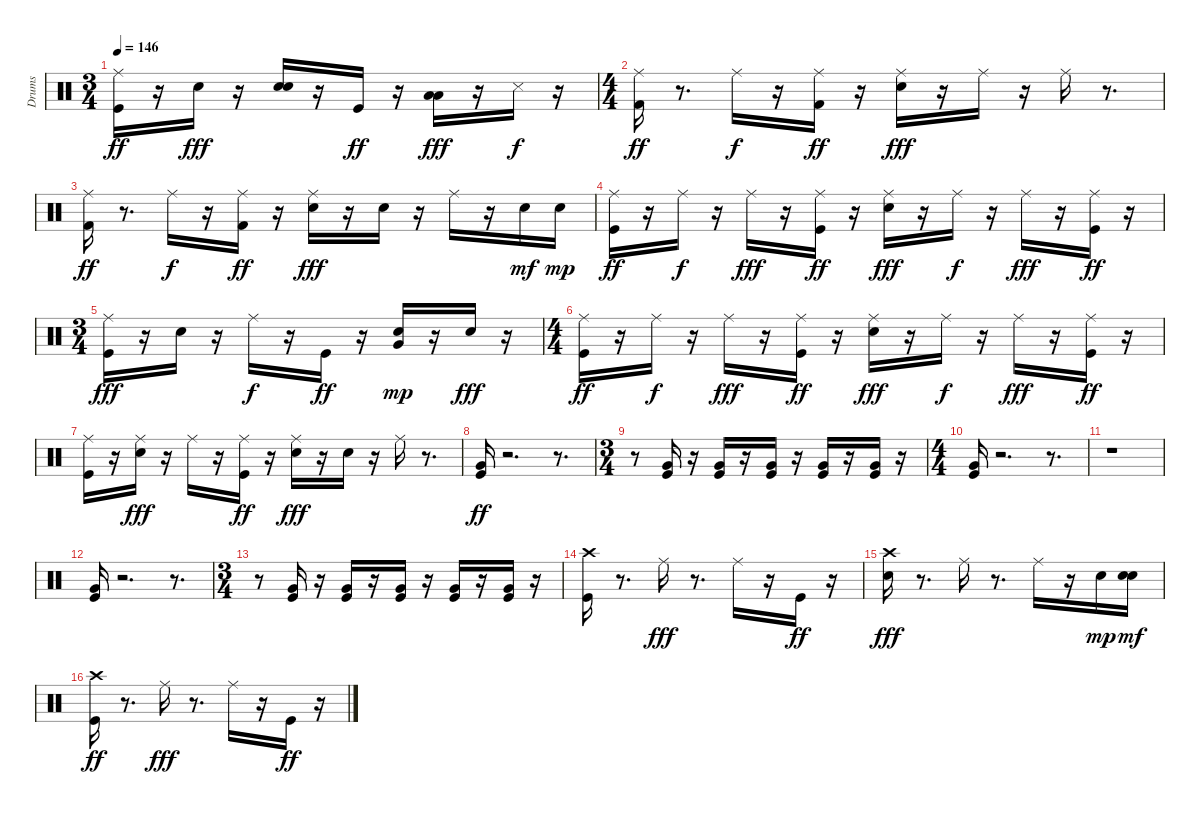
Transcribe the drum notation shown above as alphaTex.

\track ("Drums" "Drums") {instrument percussion}
\staff {score}
\articulation defaults
\ts (3 4)
\tempo 146
\clef neutral
\ks c
("Ride (middle)" "Kick (hit)").16{dy ff} r.16 "Snare (hit) 2".16{dy fff} r.16 ("Snare (hit) 2" "Snare (hit) 2").16 r.16 "Kick (hit)".16{dy ff} r.16 ("Low Tom (hit)" "Low Tom (hit)").16{dy fff} r.16 "Snare (side stick) 3".16{dy f} r.16 |
\ts (4 4)
("Ride (middle)" "Kick (hit) 2").16{dy ff} r.8{d} "Ride (middle)".16{dy f} r.16 ("Ride (middle)" "Kick (hit) 2").16{dy ff} r.16 ("Ride (middle)" "Snare (hit) 2").16{dy fff} r.16 "Ride (middle)".16 r.16 "Ride (middle)".16 r.8{d} |
("Ride (middle)" "Kick (hit) 2").16{dy ff} r.8{d} "Ride (middle)".16{dy f} r.16 ("Ride (middle)" "Kick (hit) 2").16{dy ff} r.16 ("Ride (middle)" "Snare (hit) 2").16{dy fff} r.16 "Snare (hit) 2".16 r.16 "Ride (middle)".16 r.16 "Snare (hit) 2".16{dy mf} "Snare (hit) 2".16{dy mp} |
("Ride (middle)" "Kick (hit)").16{dy ff} r.16 "Ride (middle)".16{dy f} r.16 "Ride (middle)".16{dy fff} r.16 ("Ride (middle)" "Kick (hit)").16{dy ff} r.16 ("Ride (middle)" "Snare (hit) 2").16{dy fff} r.16 "Ride (middle)".16{dy f} r.16 "Ride (middle)".16{dy fff} r.16 ("Ride (middle)" "Kick (hit)").16{dy ff} r.16 |
\ts (3 4)
("Kick (hit)" "Ride (middle)").16{dy fff} r.16 "Snare (hit) 2".16 r.16 "Ride (middle)".16{dy f} r.16 "Kick (hit)".16{dy ff} r.16 ("Snare (hit) 2" "Very Low Tom (hit)").16{dy mp} r.16 "Snare (hit) 2".16{dy fff} r.16 |
\ts (4 4)
("Ride (middle)" "Kick (hit)").16{dy ff} r.16 "Ride (middle)".16{dy f} r.16 "Ride (middle)".16{dy fff} r.16 ("Ride (middle)" "Kick (hit)").16{dy ff} r.16 ("Ride (middle)" "Snare (hit) 2").16{dy fff} r.16 "Ride (middle)".16{dy f} r.16 "Ride (middle)".16{dy fff} r.16 ("Ride (middle)" "Kick (hit)").16{dy ff} r.16 |
("Kick (hit)" "Ride (middle)").16 r.16 ("Snare (hit) 2" "Ride (middle)").16{dy fff} r.16 "Ride (middle)".16 r.16 ("Kick (hit)" "Ride (middle)").16{dy ff} r.16 ("Snare (hit) 2" "Ride (middle)").16{dy fff} r.16 "Snare (hit) 2".16 r.16 "Ride (middle)".16 r.8{d} |
("Very Low Tom (hit)" "Kick (hit)").16{dy ff} r.2{d} r.8{d} |
\ts (3 4)
r.8 ("Very Low Tom (hit)" "Kick (hit)").16 r.16 ("Very Low Tom (hit)" "Kick (hit)").16 r.16 ("Very Low Tom (hit)" "Kick (hit)").16 r.16 ("Very Low Tom (hit)" "Kick (hit)").16 r.16 ("Very Low Tom (hit)" "Kick (hit)").16 r.16 |
\ts (4 4)
("Very Low Tom (hit)" "Kick (hit)").16 r.2{d} r.8{d} |
r.1 |
("Very Low Tom (hit)" "Kick (hit)").16 r.2{d} r.8{d} |
\ts (3 4)
r.8 ("Very Low Tom (hit)" "Kick (hit)").16 r.16 ("Very Low Tom (hit)" "Kick (hit)").16 r.16 ("Very Low Tom (hit)" "Kick (hit)").16 r.16 ("Very Low Tom (hit)" "Kick (hit)").16 r.16 ("Very Low Tom (hit)" "Kick (hit)").16 r.16 |
("Crash high (hit)" "Kick (hit)").16 r.8{d} "Ride (middle)".16{dy fff} r.8{d} "Ride (middle)".16 r.16 "Kick (hit)".16{dy ff} r.16 |
("Crash high (hit)" "Snare (hit) 2").16{dy fff} r.8{d} "Ride (middle)".16 r.8{d} "Ride (middle)".16 r.16 "Snare (hit) 2".16{dy mp} ("Snare (hit) 2" "Snare (hit) 2").16{dy mf} |
("Crash high (hit)" "Kick (hit)").16{dy ff} r.8{d} "Ride (middle)".16{dy fff} r.8{d} "Ride (middle)".16 r.16 "Kick (hit)".16{dy ff} r.16
